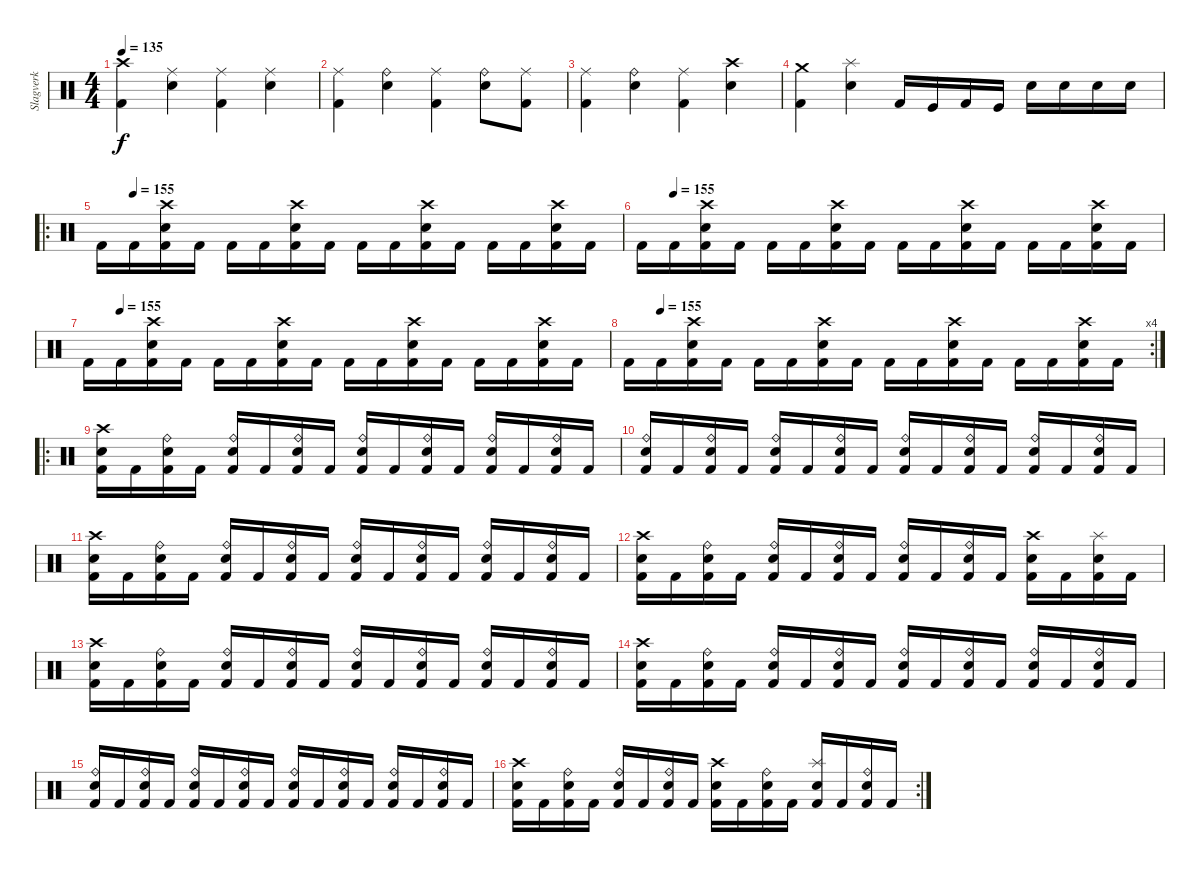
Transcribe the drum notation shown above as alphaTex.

\track ("Slagverk" "Slagverk") {instrument percussion}
\staff {score}
\articulation defaults
\ts (4 4)
\tempo 135
\clef neutral
\ks c
("Crash high (hit)" "Kick (hit) 2").4{dy f} ("Ride (middle)" "Electric Snare (hit)").4 ("Ride (middle)" "Kick (hit) 2").4 ("Ride (middle)" "Electric Snare (hit)").4 |
("Ride (middle)" "Kick (hit) 2").4 ("Ride (bell)" "Electric Snare (hit)").4 ("Ride (middle)" "Kick (hit) 2").4 ("Ride (bell)" "Electric Snare (hit)").8 ("Ride (middle)" "Kick (hit) 2").8 |
("Ride (middle)" "Kick (hit) 2").4 ("Ride (bell)" "Electric Snare (hit)").4 ("Ride (middle)" "Kick (hit) 2").4 ("Crash high (hit)" "Electric Snare (hit)").4 |
("Crash medium (hit)" "Kick (hit) 2").4 ("Splash (hit)" "Electric Snare (hit)").4 "Kick (hit) 2".16 "Kick (hit)".16 "Kick (hit) 2".16 "Kick (hit)".16 "Electric Snare (hit)".16 "Electric Snare (hit)".16 "Electric Snare (hit)".16 "Electric Snare (hit)".16 |
\ro
\tempo (155 0.0625)
"Kick (hit) 2".16 "Kick (hit) 2".16 ("Crash high (hit)" "Electric Snare (hit)" "Kick (hit) 2").16 "Kick (hit) 2".16 "Kick (hit) 2".16 "Kick (hit) 2".16 ("Crash high (hit)" "Electric Snare (hit)" "Kick (hit) 2").16 "Kick (hit) 2".16 "Kick (hit) 2".16 "Kick (hit) 2".16 ("Crash high (hit)" "Electric Snare (hit)" "Kick (hit) 2").16 "Kick (hit) 2".16 "Kick (hit) 2".16 "Kick (hit) 2".16 ("Crash high (hit)" "Electric Snare (hit)" "Kick (hit) 2").16 "Kick (hit) 2".16 |
\tempo (155 0.0625)
"Kick (hit) 2".16 "Kick (hit) 2".16 ("Crash high (hit)" "Electric Snare (hit)" "Kick (hit) 2").16 "Kick (hit) 2".16 "Kick (hit) 2".16 "Kick (hit) 2".16 ("Crash high (hit)" "Electric Snare (hit)" "Kick (hit) 2").16 "Kick (hit) 2".16 "Kick (hit) 2".16 "Kick (hit) 2".16 ("Crash high (hit)" "Electric Snare (hit)" "Kick (hit) 2").16 "Kick (hit) 2".16 "Kick (hit) 2".16 "Kick (hit) 2".16 ("Crash high (hit)" "Electric Snare (hit)" "Kick (hit) 2").16 "Kick (hit) 2".16 |
\tempo (155 0.0625)
"Kick (hit) 2".16 "Kick (hit) 2".16 ("Crash high (hit)" "Electric Snare (hit)" "Kick (hit) 2").16 "Kick (hit) 2".16 "Kick (hit) 2".16 "Kick (hit) 2".16 ("Crash high (hit)" "Electric Snare (hit)" "Kick (hit) 2").16 "Kick (hit) 2".16 "Kick (hit) 2".16 "Kick (hit) 2".16 ("Crash high (hit)" "Electric Snare (hit)" "Kick (hit) 2").16 "Kick (hit) 2".16 "Kick (hit) 2".16 "Kick (hit) 2".16 ("Crash high (hit)" "Electric Snare (hit)" "Kick (hit) 2").16 "Kick (hit) 2".16 |
\rc 4
\tempo (155 0.0625)
"Kick (hit) 2".16 "Kick (hit) 2".16 ("Crash high (hit)" "Electric Snare (hit)" "Kick (hit) 2").16 "Kick (hit) 2".16 "Kick (hit) 2".16 "Kick (hit) 2".16 ("Crash high (hit)" "Electric Snare (hit)" "Kick (hit) 2").16 "Kick (hit) 2".16 "Kick (hit) 2".16 "Kick (hit) 2".16 ("Crash high (hit)" "Electric Snare (hit)" "Kick (hit) 2").16 "Kick (hit) 2".16 "Kick (hit) 2".16 "Kick (hit) 2".16 ("Crash high (hit)" "Electric Snare (hit)" "Kick (hit) 2").16 "Kick (hit) 2".16 |
\ro
("Crash high (hit)" "Snare (hit) 2" "Kick (hit) 2").16 "Kick (hit) 2".16 ("Ride (bell)" "Snare (hit) 2" "Kick (hit) 2").16 "Kick (hit) 2".16 ("Ride (bell)" "Snare (hit) 2" "Kick (hit) 2").16 "Kick (hit) 2".16 ("Ride (bell)" "Snare (hit) 2" "Kick (hit) 2").16 "Kick (hit) 2".16 ("Ride (bell)" "Snare (hit) 2" "Kick (hit) 2").16 "Kick (hit) 2".16 ("Ride (bell)" "Snare (hit) 2" "Kick (hit) 2").16 "Kick (hit) 2".16 ("Ride (bell)" "Snare (hit) 2" "Kick (hit) 2").16 "Kick (hit) 2".16 ("Ride (bell)" "Snare (hit) 2" "Kick (hit) 2").16 "Kick (hit) 2".16 |
("Ride (bell)" "Snare (hit) 2" "Kick (hit) 2").16 "Kick (hit) 2".16 ("Ride (bell)" "Snare (hit) 2" "Kick (hit) 2").16 "Kick (hit) 2".16 ("Ride (bell)" "Snare (hit) 2" "Kick (hit) 2").16 "Kick (hit) 2".16 ("Ride (bell)" "Snare (hit) 2" "Kick (hit) 2").16 "Kick (hit) 2".16 ("Ride (bell)" "Snare (hit) 2" "Kick (hit) 2").16 "Kick (hit) 2".16 ("Ride (bell)" "Snare (hit) 2" "Kick (hit) 2").16 "Kick (hit) 2".16 ("Ride (bell)" "Snare (hit) 2" "Kick (hit) 2").16 "Kick (hit) 2".16 ("Ride (bell)" "Snare (hit) 2" "Kick (hit) 2").16 "Kick (hit) 2".16 |
("Crash high (hit)" "Snare (hit) 2" "Kick (hit) 2").16 "Kick (hit) 2".16 ("Ride (bell)" "Snare (hit) 2" "Kick (hit) 2").16 "Kick (hit) 2".16 ("Ride (bell)" "Snare (hit) 2" "Kick (hit) 2").16 "Kick (hit) 2".16 ("Ride (bell)" "Snare (hit) 2" "Kick (hit) 2").16 "Kick (hit) 2".16 ("Ride (bell)" "Snare (hit) 2" "Kick (hit) 2").16 "Kick (hit) 2".16 ("Ride (bell)" "Snare (hit) 2" "Kick (hit) 2").16 "Kick (hit) 2".16 ("Ride (bell)" "Snare (hit) 2" "Kick (hit) 2").16 "Kick (hit) 2".16 ("Ride (bell)" "Snare (hit) 2" "Kick (hit) 2").16 "Kick (hit) 2".16 |
("Crash high (hit)" "Snare (hit) 2" "Kick (hit) 2").16 "Kick (hit) 2".16 ("Ride (bell)" "Snare (hit) 2" "Kick (hit) 2").16 "Kick (hit) 2".16 ("Ride (bell)" "Snare (hit) 2" "Kick (hit) 2").16 "Kick (hit) 2".16 ("Ride (bell)" "Snare (hit) 2" "Kick (hit) 2").16 "Kick (hit) 2".16 ("Ride (bell)" "Snare (hit) 2" "Kick (hit) 2").16 "Kick (hit) 2".16 ("Ride (bell)" "Snare (hit) 2" "Kick (hit) 2").16 "Kick (hit) 2".16 ("Crash high (hit)" "Snare (hit) 2" "Kick (hit) 2").16 "Kick (hit) 2".16 ("Splash (hit)" "Snare (hit) 2" "Kick (hit) 2").16 "Kick (hit) 2".16 |
("Crash high (hit)" "Snare (hit) 2" "Kick (hit) 2").16 "Kick (hit) 2".16 ("Ride (bell)" "Snare (hit) 2" "Kick (hit) 2").16 "Kick (hit) 2".16 ("Ride (bell)" "Snare (hit) 2" "Kick (hit) 2").16 "Kick (hit) 2".16 ("Ride (bell)" "Snare (hit) 2" "Kick (hit) 2").16 "Kick (hit) 2".16 ("Ride (bell)" "Snare (hit) 2" "Kick (hit) 2").16 "Kick (hit) 2".16 ("Ride (bell)" "Snare (hit) 2" "Kick (hit) 2").16 "Kick (hit) 2".16 ("Ride (bell)" "Snare (hit) 2" "Kick (hit) 2").16 "Kick (hit) 2".16 ("Ride (bell)" "Snare (hit) 2" "Kick (hit) 2").16 "Kick (hit) 2".16 |
("Crash high (hit)" "Snare (hit) 2" "Kick (hit) 2").16 "Kick (hit) 2".16 ("Ride (bell)" "Snare (hit) 2" "Kick (hit) 2").16 "Kick (hit) 2".16 ("Ride (bell)" "Snare (hit) 2" "Kick (hit) 2").16 "Kick (hit) 2".16 ("Ride (bell)" "Snare (hit) 2" "Kick (hit) 2").16 "Kick (hit) 2".16 ("Ride (bell)" "Snare (hit) 2" "Kick (hit) 2").16 "Kick (hit) 2".16 ("Ride (bell)" "Snare (hit) 2" "Kick (hit) 2").16 "Kick (hit) 2".16 ("Ride (bell)" "Snare (hit) 2" "Kick (hit) 2").16 "Kick (hit) 2".16 ("Ride (bell)" "Snare (hit) 2" "Kick (hit) 2").16 "Kick (hit) 2".16 |
("Ride (bell)" "Snare (hit) 2" "Kick (hit) 2").16 "Kick (hit) 2".16 ("Ride (bell)" "Snare (hit) 2" "Kick (hit) 2").16 "Kick (hit) 2".16 ("Ride (bell)" "Snare (hit) 2" "Kick (hit) 2").16 "Kick (hit) 2".16 ("Ride (bell)" "Snare (hit) 2" "Kick (hit) 2").16 "Kick (hit) 2".16 ("Ride (bell)" "Snare (hit) 2" "Kick (hit) 2").16 "Kick (hit) 2".16 ("Ride (bell)" "Snare (hit) 2" "Kick (hit) 2").16 "Kick (hit) 2".16 ("Ride (bell)" "Snare (hit) 2" "Kick (hit) 2").16 "Kick (hit) 2".16 ("Ride (bell)" "Snare (hit) 2" "Kick (hit) 2").16 "Kick (hit) 2".16 |
\rc 2
("Crash high (hit)" "Snare (hit) 2" "Kick (hit) 2").16 "Kick (hit) 2".16 ("Ride (bell)" "Snare (hit) 2" "Kick (hit) 2").16 "Kick (hit) 2".16 ("Ride (bell)" "Snare (hit) 2" "Kick (hit) 2").16 "Kick (hit) 2".16 ("Ride (bell)" "Snare (hit) 2" "Kick (hit) 2").16 "Kick (hit) 2".16 ("Crash high (hit)" "Snare (hit) 2" "Kick (hit) 2").16 "Kick (hit) 2".16 ("Ride (bell)" "Snare (hit) 2" "Kick (hit) 2").16 "Kick (hit) 2".16 ("Splash (hit)" "Snare (hit) 2" "Kick (hit) 2").16 "Kick (hit) 2".16 ("Ride (bell)" "Snare (hit) 2" "Kick (hit) 2").16 "Kick (hit) 2".16
